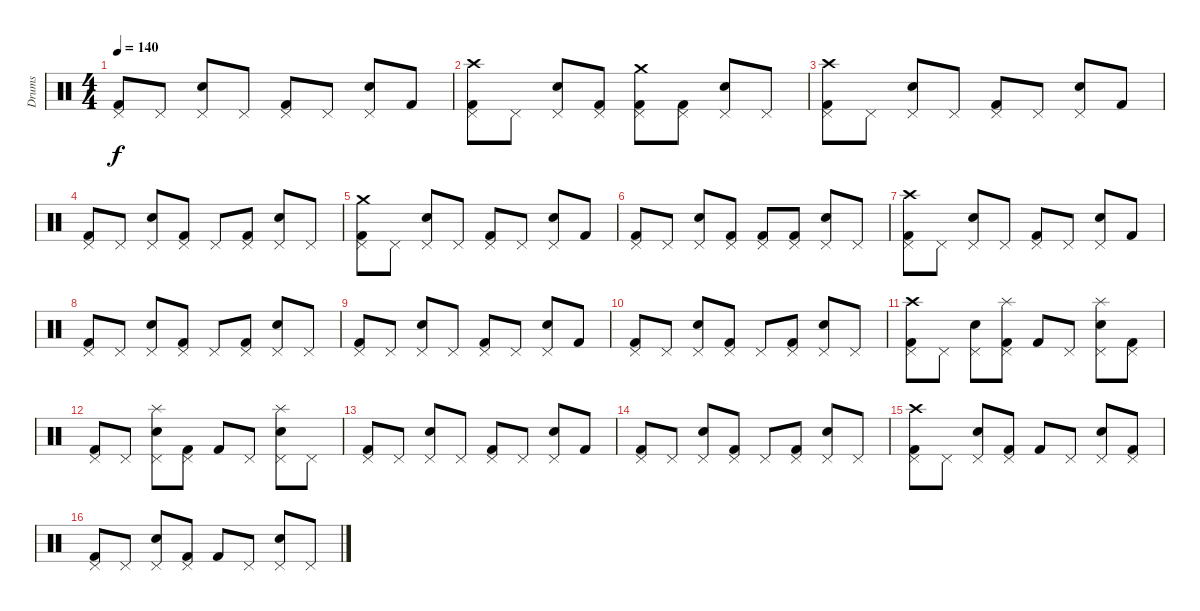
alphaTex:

\track ("Drums" "Drums") {instrument percussion}
\staff {score}
\articulation defaults
\ts (4 4)
\tempo 140
\clef neutral
\ks c
("Kick (hit) 2" "Pedal Hi-Hat (hit)").8{dy f} "Pedal Hi-Hat (hit)".8 ("Snare (hit) 2" "Pedal Hi-Hat (hit)").8 "Pedal Hi-Hat (hit)".8 ("Kick (hit) 2" "Pedal Hi-Hat (hit)").8 "Pedal Hi-Hat (hit)".8 ("Snare (hit) 2" "Pedal Hi-Hat (hit)").8 "Kick (hit) 2".8 |
("Kick (hit) 2" "Pedal Hi-Hat (hit)" "Crash high (hit)").8 "Pedal Hi-Hat (hit)".8 ("Snare (hit) 2" "Pedal Hi-Hat (hit)").8 ("Kick (hit) 2" "Pedal Hi-Hat (hit)").8 ("Kick (hit) 2" "Pedal Hi-Hat (hit)" "Crash medium (hit)").8 ("Kick (hit) 2" "Pedal Hi-Hat (hit)").8 ("Snare (hit) 2" "Pedal Hi-Hat (hit)").8 "Pedal Hi-Hat (hit)".8 |
("Kick (hit) 2" "Pedal Hi-Hat (hit)" "Crash high (hit)").8 "Pedal Hi-Hat (hit)".8 ("Snare (hit) 2" "Pedal Hi-Hat (hit)").8 "Pedal Hi-Hat (hit)".8 ("Kick (hit) 2" "Pedal Hi-Hat (hit)").8 "Pedal Hi-Hat (hit)".8 ("Snare (hit) 2" "Pedal Hi-Hat (hit)").8 "Kick (hit) 2".8 |
("Kick (hit) 2" "Pedal Hi-Hat (hit)").8 "Pedal Hi-Hat (hit)".8 ("Snare (hit) 2" "Pedal Hi-Hat (hit)").8 ("Kick (hit) 2" "Pedal Hi-Hat (hit)").8 "Pedal Hi-Hat (hit)".8 ("Kick (hit) 2" "Pedal Hi-Hat (hit)").8 ("Snare (hit) 2" "Pedal Hi-Hat (hit)").8 "Pedal Hi-Hat (hit)".8 |
("Kick (hit) 2" "Pedal Hi-Hat (hit)" "Crash medium (hit)").8 "Pedal Hi-Hat (hit)".8 ("Snare (hit) 2" "Pedal Hi-Hat (hit)").8 "Pedal Hi-Hat (hit)".8 ("Kick (hit) 2" "Pedal Hi-Hat (hit)").8 "Pedal Hi-Hat (hit)".8 ("Snare (hit) 2" "Pedal Hi-Hat (hit)").8 "Kick (hit) 2".8 |
("Kick (hit) 2" "Pedal Hi-Hat (hit)").8 "Pedal Hi-Hat (hit)".8 ("Snare (hit) 2" "Pedal Hi-Hat (hit)").8 ("Kick (hit) 2" "Pedal Hi-Hat (hit)").8 ("Kick (hit) 2" "Pedal Hi-Hat (hit)").8 ("Kick (hit) 2" "Pedal Hi-Hat (hit)").8 ("Snare (hit) 2" "Pedal Hi-Hat (hit)").8 "Pedal Hi-Hat (hit)".8 |
("Kick (hit) 2" "Pedal Hi-Hat (hit)" "Crash high (hit)").8 "Pedal Hi-Hat (hit)".8 ("Snare (hit) 2" "Pedal Hi-Hat (hit)").8 "Pedal Hi-Hat (hit)".8 ("Kick (hit) 2" "Pedal Hi-Hat (hit)").8 "Pedal Hi-Hat (hit)".8 ("Snare (hit) 2" "Pedal Hi-Hat (hit)").8 "Kick (hit) 2".8 |
("Kick (hit) 2" "Pedal Hi-Hat (hit)").8 "Pedal Hi-Hat (hit)".8 ("Snare (hit) 2" "Pedal Hi-Hat (hit)").8 ("Kick (hit) 2" "Pedal Hi-Hat (hit)").8 "Pedal Hi-Hat (hit)".8 ("Kick (hit) 2" "Pedal Hi-Hat (hit)").8 ("Snare (hit) 2" "Pedal Hi-Hat (hit)").8 "Pedal Hi-Hat (hit)".8 |
("Kick (hit) 2" "Pedal Hi-Hat (hit)").8 "Pedal Hi-Hat (hit)".8 ("Snare (hit) 2" "Pedal Hi-Hat (hit)").8 "Pedal Hi-Hat (hit)".8 ("Kick (hit) 2" "Pedal Hi-Hat (hit)").8 "Pedal Hi-Hat (hit)".8 ("Snare (hit) 2" "Pedal Hi-Hat (hit)").8 "Kick (hit) 2".8 |
("Kick (hit) 2" "Pedal Hi-Hat (hit)").8 "Pedal Hi-Hat (hit)".8 ("Snare (hit) 2" "Pedal Hi-Hat (hit)").8 ("Kick (hit) 2" "Pedal Hi-Hat (hit)").8 "Pedal Hi-Hat (hit)".8 ("Kick (hit) 2" "Pedal Hi-Hat (hit)").8 ("Snare (hit) 2" "Pedal Hi-Hat (hit)").8 "Pedal Hi-Hat (hit)".8 |
("Kick (hit) 2" "Pedal Hi-Hat (hit)" "Crash high (hit)").8 "Pedal Hi-Hat (hit)".8 ("Snare (hit) 2" "Pedal Hi-Hat (hit)").8 ("Kick (hit) 2" "Pedal Hi-Hat (hit)" "Splash (hit)").8 "Kick (hit) 2".8 "Pedal Hi-Hat (hit)".8 ("Snare (hit) 2" "Pedal Hi-Hat (hit)" "Splash (hit)").8 ("Kick (hit) 2" "Pedal Hi-Hat (hit)").8 |
("Kick (hit) 2" "Pedal Hi-Hat (hit)").8 "Pedal Hi-Hat (hit)".8 ("Snare (hit) 2" "Pedal Hi-Hat (hit)" "Splash (hit)").8 ("Kick (hit) 2" "Pedal Hi-Hat (hit)").8 "Kick (hit) 2".8 "Pedal Hi-Hat (hit)".8 ("Snare (hit) 2" "Pedal Hi-Hat (hit)" "Splash (hit)").8 "Pedal Hi-Hat (hit)".8 |
("Kick (hit) 2" "Pedal Hi-Hat (hit)").8 "Pedal Hi-Hat (hit)".8 ("Snare (hit) 2" "Pedal Hi-Hat (hit)").8 "Pedal Hi-Hat (hit)".8 ("Kick (hit) 2" "Pedal Hi-Hat (hit)").8 "Pedal Hi-Hat (hit)".8 ("Snare (hit) 2" "Pedal Hi-Hat (hit)").8 "Kick (hit) 2".8 |
("Kick (hit) 2" "Pedal Hi-Hat (hit)").8 "Pedal Hi-Hat (hit)".8 ("Snare (hit) 2" "Pedal Hi-Hat (hit)").8 ("Kick (hit) 2" "Pedal Hi-Hat (hit)").8 "Pedal Hi-Hat (hit)".8 ("Kick (hit) 2" "Pedal Hi-Hat (hit)").8 ("Snare (hit) 2" "Pedal Hi-Hat (hit)").8 "Pedal Hi-Hat (hit)".8 |
("Kick (hit) 2" "Pedal Hi-Hat (hit)" "Crash high (hit)").8 "Pedal Hi-Hat (hit)".8 ("Snare (hit) 2" "Pedal Hi-Hat (hit)").8 ("Kick (hit) 2" "Pedal Hi-Hat (hit)").8 "Kick (hit) 2".8 "Pedal Hi-Hat (hit)".8 ("Snare (hit) 2" "Pedal Hi-Hat (hit)").8 ("Kick (hit) 2" "Pedal Hi-Hat (hit)").8 |
("Kick (hit) 2" "Pedal Hi-Hat (hit)").8 "Pedal Hi-Hat (hit)".8 ("Snare (hit) 2" "Pedal Hi-Hat (hit)").8 ("Kick (hit) 2" "Pedal Hi-Hat (hit)").8 "Kick (hit) 2".8 "Pedal Hi-Hat (hit)".8 ("Snare (hit) 2" "Pedal Hi-Hat (hit)").8 "Pedal Hi-Hat (hit)".8
